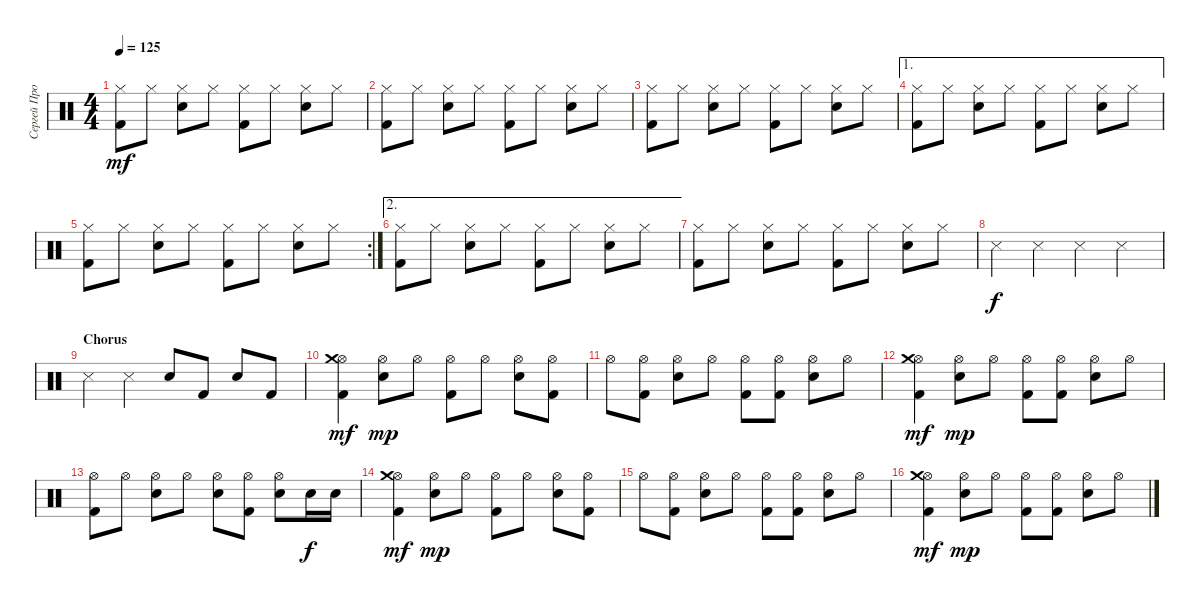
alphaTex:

\track ("Сергей Прокофьев (Percussion)" "Сергей Про") {instrument percussion}
\staff {score}
\articulation defaults
\ts (4 4)
\tempo 125
\clef neutral
\ks c
("Hi-Hat (closed)" "Kick (hit) 2").8{dy mf} "Hi-Hat (closed)".8 ("Hi-Hat (closed)" "Snare (hit) 2").8 "Hi-Hat (closed)".8 ("Hi-Hat (closed)" "Kick (hit) 2").8 "Hi-Hat (closed)".8 ("Hi-Hat (closed)" "Snare (hit) 2").8 "Hi-Hat (closed)".8 |
("Hi-Hat (closed)" "Kick (hit) 2").8 "Hi-Hat (closed)".8 ("Hi-Hat (closed)" "Snare (hit) 2").8 "Hi-Hat (closed)".8 ("Hi-Hat (closed)" "Kick (hit) 2").8 "Hi-Hat (closed)".8 ("Hi-Hat (closed)" "Snare (hit) 2").8 "Hi-Hat (closed)".8 |
("Hi-Hat (closed)" "Kick (hit) 2").8 "Hi-Hat (closed)".8 ("Hi-Hat (closed)" "Snare (hit) 2").8 "Hi-Hat (closed)".8 ("Hi-Hat (closed)" "Kick (hit) 2").8 "Hi-Hat (closed)".8 ("Hi-Hat (closed)" "Snare (hit) 2").8 "Hi-Hat (closed)".8 |
\ae 1
("Hi-Hat (closed)" "Kick (hit) 2").8 "Hi-Hat (closed)".8 ("Hi-Hat (closed)" "Snare (hit) 2").8 "Hi-Hat (closed)".8 ("Hi-Hat (closed)" "Kick (hit) 2").8 "Hi-Hat (closed)".8 ("Hi-Hat (closed)" "Snare (hit) 2").8 "Hi-Hat (closed)".8 |
\rc 2
("Hi-Hat (closed)" "Kick (hit) 2").8 "Hi-Hat (closed)".8 ("Hi-Hat (closed)" "Snare (hit) 2").8 "Hi-Hat (closed)".8 ("Hi-Hat (closed)" "Kick (hit) 2").8 "Hi-Hat (closed)".8 ("Hi-Hat (closed)" "Snare (hit) 2").8 "Hi-Hat (closed)".8 |
\ae 2
("Hi-Hat (closed)" "Kick (hit) 2").8 "Hi-Hat (closed)".8 ("Hi-Hat (closed)" "Snare (hit) 2").8 "Hi-Hat (closed)".8 ("Hi-Hat (closed)" "Kick (hit) 2").8 "Hi-Hat (closed)".8 ("Hi-Hat (closed)" "Snare (hit) 2").8 "Hi-Hat (closed)".8 |
("Hi-Hat (closed)" "Kick (hit) 2").8 "Hi-Hat (closed)".8 ("Hi-Hat (closed)" "Snare (hit) 2").8 "Hi-Hat (closed)".8 ("Hi-Hat (closed)" "Kick (hit) 2").8 "Hi-Hat (closed)".8 ("Hi-Hat (closed)" "Snare (hit) 2").8 "Hi-Hat (closed)".8 |
"Snare (side stick) 3".4{dy f} "Snare (side stick) 3".4 "Snare (side stick) 3".4 "Snare (side stick) 3".4 |
\section ("" "Chorus")
"Snare (side stick) 3".4 "Snare (side stick) 3".4 "Snare (hit) 2".8 "Kick (hit) 2".8 "Snare (hit) 2".8 "Kick (hit) 2".8 |
("Hi-Hat (open)" "Crash medium (hit)" "Kick (hit) 2").4{dy mf} ("Hi-Hat (open)" "Snare (hit) 2").8{dy mp} "Hi-Hat (open)".8 ("Hi-Hat (open)" "Kick (hit) 2").8 "Hi-Hat (open)".8 ("Hi-Hat (open)" "Snare (hit) 2").8 ("Hi-Hat (open)" "Kick (hit) 2").8 |
"Hi-Hat (open)".8 ("Hi-Hat (open)" "Kick (hit) 2").8 ("Hi-Hat (open)" "Snare (hit) 2").8 "Hi-Hat (open)".8 ("Hi-Hat (open)" "Kick (hit) 2").8 ("Hi-Hat (open)" "Kick (hit) 2").8 ("Hi-Hat (open)" "Snare (hit) 2").8 "Hi-Hat (open)".8 |
("Hi-Hat (open)" "Crash medium (hit)" "Kick (hit) 2").4{dy mf} ("Hi-Hat (open)" "Snare (hit) 2").8{dy mp} "Hi-Hat (open)".8 ("Hi-Hat (open)" "Kick (hit) 2").8 ("Hi-Hat (open)" "Kick (hit) 2").8 ("Hi-Hat (open)" "Snare (hit) 2").8 "Hi-Hat (open)".8 |
("Hi-Hat (open)" "Kick (hit) 2").8 "Hi-Hat (open)".8 ("Hi-Hat (open)" "Snare (hit) 2").8 "Hi-Hat (open)".8 ("Hi-Hat (open)" "Snare (hit) 2").8 ("Hi-Hat (open)" "Kick (hit) 2").8 ("Hi-Hat (open)" "Snare (hit) 2").8 "Snare (hit) 2".16{dy f} "Snare (hit) 2".16 |
("Hi-Hat (open)" "Crash medium (hit)" "Kick (hit) 2").4{dy mf} ("Hi-Hat (open)" "Snare (hit) 2").8{dy mp} "Hi-Hat (open)".8 ("Hi-Hat (open)" "Kick (hit) 2").8 "Hi-Hat (open)".8 ("Hi-Hat (open)" "Snare (hit) 2").8 ("Hi-Hat (open)" "Kick (hit) 2").8 |
"Hi-Hat (open)".8 ("Hi-Hat (open)" "Kick (hit) 2").8 ("Hi-Hat (open)" "Snare (hit) 2").8 "Hi-Hat (open)".8 ("Hi-Hat (open)" "Kick (hit) 2").8 ("Hi-Hat (open)" "Kick (hit) 2").8 ("Hi-Hat (open)" "Snare (hit) 2").8 "Hi-Hat (open)".8 |
("Hi-Hat (open)" "Crash medium (hit)" "Kick (hit) 2").4{dy mf} ("Hi-Hat (open)" "Snare (hit) 2").8{dy mp} "Hi-Hat (open)".8 ("Hi-Hat (open)" "Kick (hit) 2").8 ("Hi-Hat (open)" "Kick (hit) 2").8 ("Hi-Hat (open)" "Snare (hit) 2").8 "Hi-Hat (open)".8
